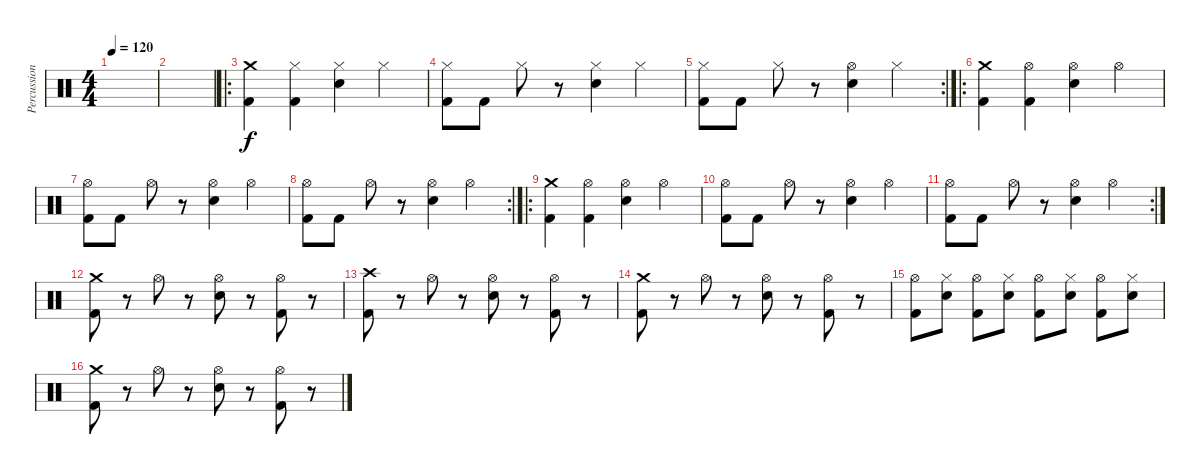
\track ("Percussion" "Percussion") {instrument percussion}
\staff {score}
\articulation defaults
\ts (4 4)
\tempo 120
\clef neutral
\ks c
|
|
\ro
("Crash medium (hit)" "Kick (hit) 2").4 ("Hi-Hat (closed)" "Kick (hit) 2").4 ("Hi-Hat (closed)" "Electric Snare (hit)").4 "Hi-Hat (closed)".4 |
("Hi-Hat (closed)" "Kick (hit) 2").8 "Kick (hit) 2".8 "Hi-Hat (closed)".8 r.8 ("Hi-Hat (closed)" "Electric Snare (hit)").4 "Hi-Hat (closed)".4 |
\rc 2
("Hi-Hat (closed)" "Kick (hit) 2").8 "Kick (hit) 2".8 "Hi-Hat (closed)".8 r.8 ("Hi-Hat (open)" "Electric Snare (hit)").4 "Hi-Hat (closed)".4 |
\ro
("Crash medium (hit)" "Kick (hit) 2").4 ("Hi-Hat (open)" "Kick (hit) 2").4 ("Hi-Hat (open)" "Electric Snare (hit)").4 "Hi-Hat (open)".4 |
("Hi-Hat (open)" "Kick (hit) 2").8 "Kick (hit) 2".8 "Hi-Hat (open)".8 r.8 ("Hi-Hat (open)" "Electric Snare (hit)").4 "Hi-Hat (open)".4 |
\rc 2
("Hi-Hat (open)" "Kick (hit) 2").8 "Kick (hit) 2".8 "Hi-Hat (open)".8 r.8 ("Hi-Hat (open)" "Electric Snare (hit)").4 "Hi-Hat (open)".4 |
\ro
("Crash medium (hit)" "Kick (hit) 2").4 ("Hi-Hat (open)" "Kick (hit) 2").4 ("Hi-Hat (open)" "Electric Snare (hit)").4 "Hi-Hat (open)".4 |
("Hi-Hat (open)" "Kick (hit) 2").8 "Kick (hit) 2".8 "Hi-Hat (open)".8 r.8 ("Hi-Hat (open)" "Electric Snare (hit)").4 "Hi-Hat (open)".4 |
\rc 2
("Hi-Hat (open)" "Kick (hit) 2").8 "Kick (hit) 2".8 "Hi-Hat (open)".8 r.8 ("Hi-Hat (open)" "Electric Snare (hit)").4 "Hi-Hat (open)".4 |
("Crash medium (hit)" "Kick (hit) 2").8 r.8 "Hi-Hat (open)".8 r.8 ("Hi-Hat (open)" "Electric Snare (hit)").8 r.8 ("Hi-Hat (open)" "Kick (hit) 2").8 r.8 |
("Crash high (hit)" "Kick (hit) 2").8 r.8 "Hi-Hat (open)".8 r.8 ("Hi-Hat (open)" "Electric Snare (hit)").8 r.8 ("Hi-Hat (open)" "Kick (hit) 2").8 r.8 |
("Crash medium (hit)" "Kick (hit) 2").8 r.8 "Hi-Hat (open)".8 r.8 ("Hi-Hat (open)" "Electric Snare (hit)").8 r.8 ("Hi-Hat (open)" "Kick (hit) 2").8 r.8 |
("Hi-Hat (open)" "Kick (hit) 2").8 ("Hi-Hat (closed)" "Electric Snare (hit)").8 ("Hi-Hat (open)" "Kick (hit) 2").8 ("Hi-Hat (closed)" "Electric Snare (hit)").8 ("Hi-Hat (open)" "Kick (hit) 2").8 ("Hi-Hat (closed)" "Electric Snare (hit)").8 ("Hi-Hat (open)" "Kick (hit) 2").8 ("Hi-Hat (closed)" "Electric Snare (hit)").8 |
("Crash medium (hit)" "Kick (hit) 2").8 r.8 "Hi-Hat (open)".8 r.8 ("Hi-Hat (open)" "Electric Snare (hit)").8 r.8 ("Hi-Hat (open)" "Kick (hit) 2").8 r.8
